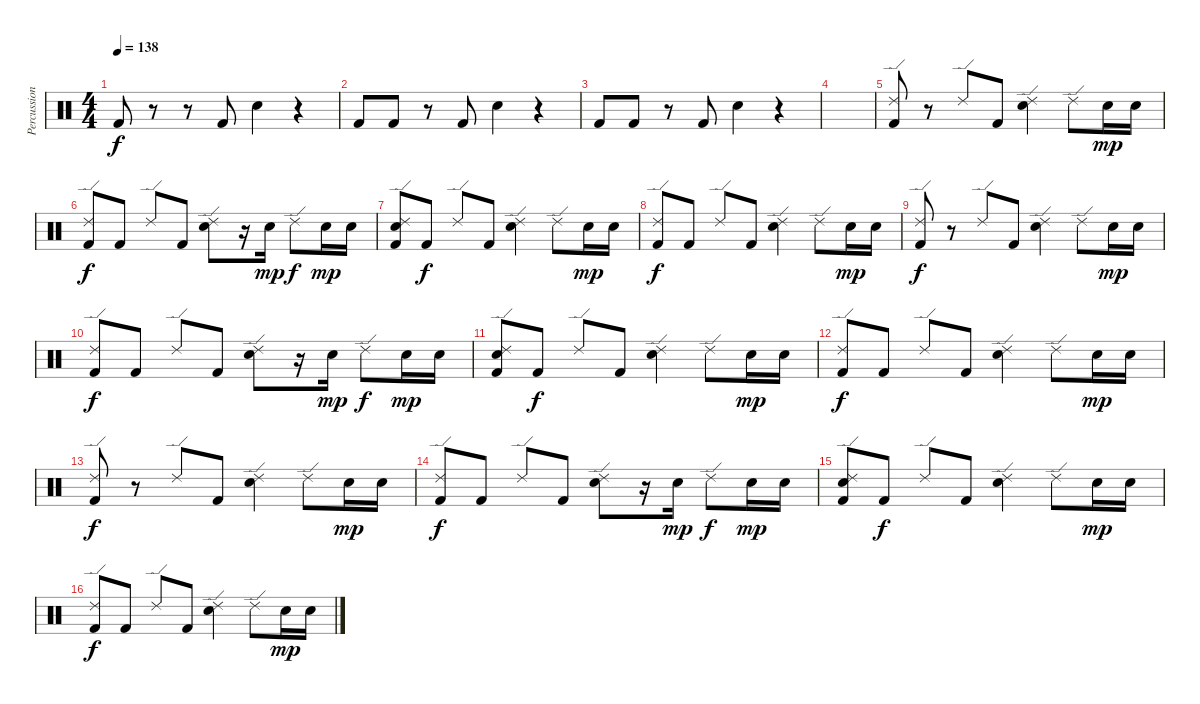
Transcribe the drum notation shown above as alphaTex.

\track ("Percussion" "Percussion") {instrument percussion}
\staff {score}
\articulation defaults
\ts (4 4)
\tempo 138
\clef neutral
\ks c "Kick (hit) 2".8{dy f}
r.8 r.8 "Kick (hit) 2".8 "Electric Snare (hit)".4 r.4 |
"Kick (hit) 2".8 "Kick (hit) 2".8 r.8 "Kick (hit) 2".8 "Electric Snare (hit)".4 r.4 |
"Kick (hit) 2".8 "Kick (hit) 2".8 r.8 "Kick (hit) 2".8 "Electric Snare (hit)".4 r.4 |
|
("Ride (edge) 2" "Kick (hit) 2").8 r.8 "Ride (edge) 2".8 "Kick (hit) 2".8 ("Ride (edge) 2" "Electric Snare (hit)").4 "Ride (edge) 2".8 "Electric Snare (hit)".16{dy mp} "Electric Snare (hit)".16 |
("Ride (edge) 2" "Kick (hit) 2").8{dy f} "Kick (hit) 2".8 "Ride (edge) 2".8 "Kick (hit) 2".8 ("Ride (edge) 2" "Electric Snare (hit)").8 r.16 "Electric Snare (hit)".16{dy mp} "Ride (edge) 2".8{dy f} "Electric Snare (hit)".16{dy mp} "Electric Snare (hit)".16 |
("Ride (edge) 2" "Electric Snare (hit)" "Kick (hit) 2").8 "Kick (hit) 2".8{dy f} "Ride (edge) 2".8 "Kick (hit) 2".8 ("Ride (edge) 2" "Electric Snare (hit)").4 "Ride (edge) 2".8 "Electric Snare (hit)".16{dy mp} "Electric Snare (hit)".16 |
("Ride (edge) 2" "Kick (hit) 2").8{dy f} "Kick (hit) 2".8 "Ride (edge) 2".8 "Kick (hit) 2".8 ("Ride (edge) 2" "Electric Snare (hit)").4 "Ride (edge) 2".8 "Electric Snare (hit)".16{dy mp} "Electric Snare (hit)".16 |
("Ride (edge) 2" "Kick (hit) 2").8{dy f} r.8 "Ride (edge) 2".8 "Kick (hit) 2".8 ("Ride (edge) 2" "Electric Snare (hit)").4 "Ride (edge) 2".8 "Electric Snare (hit)".16{dy mp} "Electric Snare (hit)".16 |
("Ride (edge) 2" "Kick (hit) 2").8{dy f} "Kick (hit) 2".8 "Ride (edge) 2".8 "Kick (hit) 2".8 ("Ride (edge) 2" "Electric Snare (hit)").8 r.16 "Electric Snare (hit)".16{dy mp} "Ride (edge) 2".8{dy f} "Electric Snare (hit)".16{dy mp} "Electric Snare (hit)".16 |
("Ride (edge) 2" "Electric Snare (hit)" "Kick (hit) 2").8 "Kick (hit) 2".8{dy f} "Ride (edge) 2".8 "Kick (hit) 2".8 ("Ride (edge) 2" "Electric Snare (hit)").4 "Ride (edge) 2".8 "Electric Snare (hit)".16{dy mp} "Electric Snare (hit)".16 |
("Ride (edge) 2" "Kick (hit) 2").8{dy f} "Kick (hit) 2".8 "Ride (edge) 2".8 "Kick (hit) 2".8 ("Ride (edge) 2" "Electric Snare (hit)").4 "Ride (edge) 2".8 "Electric Snare (hit)".16{dy mp} "Electric Snare (hit)".16 |
("Ride (edge) 2" "Kick (hit) 2").8{dy f} r.8 "Ride (edge) 2".8 "Kick (hit) 2".8 ("Ride (edge) 2" "Electric Snare (hit)").4 "Ride (edge) 2".8 "Electric Snare (hit)".16{dy mp} "Electric Snare (hit)".16 |
("Ride (edge) 2" "Kick (hit) 2").8{dy f} "Kick (hit) 2".8 "Ride (edge) 2".8 "Kick (hit) 2".8 ("Ride (edge) 2" "Electric Snare (hit)").8 r.16 "Electric Snare (hit)".16{dy mp} "Ride (edge) 2".8{dy f} "Electric Snare (hit)".16{dy mp} "Electric Snare (hit)".16 |
("Ride (edge) 2" "Electric Snare (hit)" "Kick (hit) 2").8 "Kick (hit) 2".8{dy f} "Ride (edge) 2".8 "Kick (hit) 2".8 ("Ride (edge) 2" "Electric Snare (hit)").4 "Ride (edge) 2".8 "Electric Snare (hit)".16{dy mp} "Electric Snare (hit)".16 |
("Ride (edge) 2" "Kick (hit) 2").8{dy f} "Kick (hit) 2".8 "Ride (edge) 2".8 "Kick (hit) 2".8 ("Ride (edge) 2" "Electric Snare (hit)").4 "Ride (edge) 2".8 "Electric Snare (hit)".16{dy mp} "Electric Snare (hit)".16
